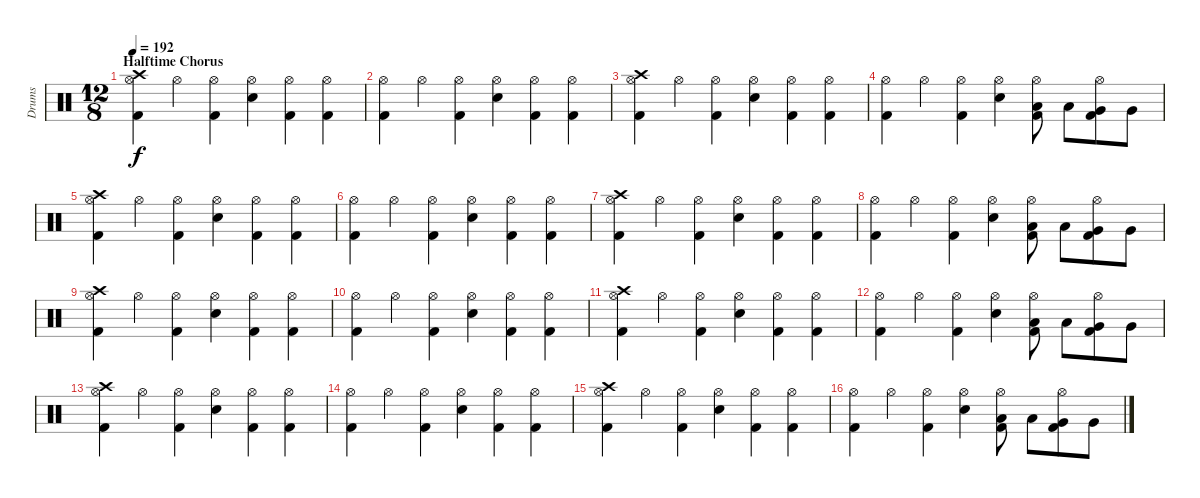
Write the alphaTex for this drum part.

\track ("Drums" "Drums") {instrument percussion}
\staff {score}
\articulation defaults
\ts (12 8)
\section ("" "Halftime Chorus")
\tempo 192
\clef neutral
\ks c
("Crash high (hit)" "Hi-Hat (open)" "Kick (hit) 2").4{dy f} "Hi-Hat (open)".4 ("Hi-Hat (open)" "Kick (hit) 2").4 ("Hi-Hat (open)" "Snare (hit) 2").4 ("Hi-Hat (open)" "Kick (hit) 2").4 ("Hi-Hat (open)" "Kick (hit) 2").4 |
("Hi-Hat (open)" "Kick (hit) 2").4 "Hi-Hat (open)".4 ("Hi-Hat (open)" "Kick (hit) 2").4 ("Hi-Hat (open)" "Snare (hit) 2").4 ("Hi-Hat (open)" "Kick (hit) 2").4 ("Hi-Hat (open)" "Kick (hit) 2").4 |
("Crash high (hit)" "Hi-Hat (open)" "Kick (hit) 2").4 "Hi-Hat (open)".4 ("Hi-Hat (open)" "Kick (hit) 2").4 ("Hi-Hat (open)" "Snare (hit) 2").4 ("Hi-Hat (open)" "Kick (hit) 2").4 ("Hi-Hat (open)" "Kick (hit) 2").4 |
("Hi-Hat (open)" "Kick (hit) 2").4 "Hi-Hat (open)".4 ("Hi-Hat (open)" "Kick (hit) 2").4 ("Hi-Hat (open)" "Snare (hit) 2").4 ("Hi-Hat (open)" "Low Tom (hit)" "Kick (hit) 2").8 "Low Tom (hit)".8 ("Hi-Hat (open)" "Very Low Tom (hit)" "Kick (hit) 2").8 "Very Low Tom (hit)".8 |
("Crash high (hit)" "Hi-Hat (open)" "Kick (hit) 2").4 "Hi-Hat (open)".4 ("Hi-Hat (open)" "Kick (hit) 2").4 ("Hi-Hat (open)" "Snare (hit) 2").4 ("Hi-Hat (open)" "Kick (hit) 2").4 ("Hi-Hat (open)" "Kick (hit) 2").4 |
("Hi-Hat (open)" "Kick (hit) 2").4 "Hi-Hat (open)".4 ("Hi-Hat (open)" "Kick (hit) 2").4 ("Hi-Hat (open)" "Snare (hit) 2").4 ("Hi-Hat (open)" "Kick (hit) 2").4 ("Hi-Hat (open)" "Kick (hit) 2").4 |
("Crash high (hit)" "Hi-Hat (open)" "Kick (hit) 2").4 "Hi-Hat (open)".4 ("Hi-Hat (open)" "Kick (hit) 2").4 ("Hi-Hat (open)" "Snare (hit) 2").4 ("Hi-Hat (open)" "Kick (hit) 2").4 ("Hi-Hat (open)" "Kick (hit) 2").4 |
("Hi-Hat (open)" "Kick (hit) 2").4 "Hi-Hat (open)".4 ("Hi-Hat (open)" "Kick (hit) 2").4 ("Hi-Hat (open)" "Snare (hit) 2").4 ("Hi-Hat (open)" "Low Tom (hit)" "Kick (hit) 2").8 "Low Tom (hit)".8 ("Hi-Hat (open)" "Very Low Tom (hit)" "Kick (hit) 2").8 "Very Low Tom (hit)".8 |
("Crash high (hit)" "Hi-Hat (open)" "Kick (hit) 2").4 "Hi-Hat (open)".4 ("Hi-Hat (open)" "Kick (hit) 2").4 ("Hi-Hat (open)" "Snare (hit) 2").4 ("Hi-Hat (open)" "Kick (hit) 2").4 ("Hi-Hat (open)" "Kick (hit) 2").4 |
("Hi-Hat (open)" "Kick (hit) 2").4 "Hi-Hat (open)".4 ("Hi-Hat (open)" "Kick (hit) 2").4 ("Hi-Hat (open)" "Snare (hit) 2").4 ("Hi-Hat (open)" "Kick (hit) 2").4 ("Hi-Hat (open)" "Kick (hit) 2").4 |
("Crash high (hit)" "Hi-Hat (open)" "Kick (hit) 2").4 "Hi-Hat (open)".4 ("Hi-Hat (open)" "Kick (hit) 2").4 ("Hi-Hat (open)" "Snare (hit) 2").4 ("Hi-Hat (open)" "Kick (hit) 2").4 ("Hi-Hat (open)" "Kick (hit) 2").4 |
("Hi-Hat (open)" "Kick (hit) 2").4 "Hi-Hat (open)".4 ("Hi-Hat (open)" "Kick (hit) 2").4 ("Hi-Hat (open)" "Snare (hit) 2").4 ("Hi-Hat (open)" "Low Tom (hit)" "Kick (hit) 2").8 "Low Tom (hit)".8 ("Hi-Hat (open)" "Very Low Tom (hit)" "Kick (hit) 2").8 "Very Low Tom (hit)".8 |
("Crash high (hit)" "Hi-Hat (open)" "Kick (hit) 2").4 "Hi-Hat (open)".4 ("Hi-Hat (open)" "Kick (hit) 2").4 ("Hi-Hat (open)" "Snare (hit) 2").4 ("Hi-Hat (open)" "Kick (hit) 2").4 ("Hi-Hat (open)" "Kick (hit) 2").4 |
("Hi-Hat (open)" "Kick (hit) 2").4 "Hi-Hat (open)".4 ("Hi-Hat (open)" "Kick (hit) 2").4 ("Hi-Hat (open)" "Snare (hit) 2").4 ("Hi-Hat (open)" "Kick (hit) 2").4 ("Hi-Hat (open)" "Kick (hit) 2").4 |
("Crash high (hit)" "Hi-Hat (open)" "Kick (hit) 2").4 "Hi-Hat (open)".4 ("Hi-Hat (open)" "Kick (hit) 2").4 ("Hi-Hat (open)" "Snare (hit) 2").4 ("Hi-Hat (open)" "Kick (hit) 2").4 ("Hi-Hat (open)" "Kick (hit) 2").4 |
("Hi-Hat (open)" "Kick (hit) 2").4 "Hi-Hat (open)".4 ("Hi-Hat (open)" "Kick (hit) 2").4 ("Hi-Hat (open)" "Snare (hit) 2").4 ("Hi-Hat (open)" "Low Tom (hit)" "Kick (hit) 2").8 "Low Tom (hit)".8 ("Hi-Hat (open)" "Very Low Tom (hit)" "Kick (hit) 2").8 "Very Low Tom (hit)".8
